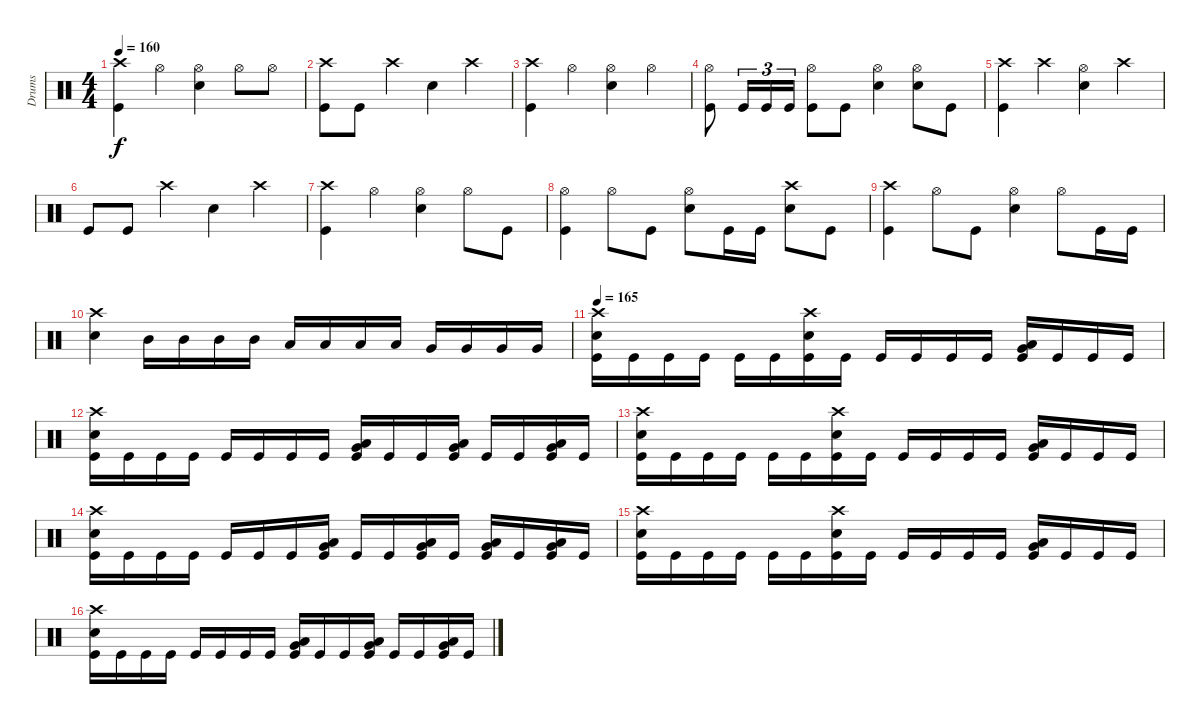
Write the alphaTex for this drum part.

\track ("Drums" "Drums") {instrument percussion}
\staff {score}
\articulation defaults
\ts (4 4)
\tempo 160
\clef neutral
\ks c
("Crash high (hit)" "Kick (hit)").4{dy f} "Hi-Hat (open)".4 ("Hi-Hat (open)" "Electric Snare (hit)").4 "Hi-Hat (open)".8 "Hi-Hat (open)".8 |
("Crash high (hit)" "Kick (hit)").8 "Kick (hit)".8 "Crash high (hit)".4 "Electric Snare (hit)".4 "Crash high (hit)".4 |
("Crash high (hit)" "Kick (hit)").4 "Hi-Hat (open)".4 ("Hi-Hat (open)" "Electric Snare (hit)").4 "Hi-Hat (open)".4 |
("Hi-Hat (open)" "Kick (hit)").8 "Kick (hit)".16{tu (3 2)} "Kick (hit)".16{tu (3 2)} "Kick (hit)".16{tu (3 2)} ("Hi-Hat (open)" "Kick (hit)").8 "Kick (hit)".8 ("Hi-Hat (open)" "Electric Snare (hit)").4 ("Hi-Hat (open)" "Electric Snare (hit)").8 "Kick (hit)".8 |
("Crash high (hit)" "Kick (hit)").4 "Crash high (hit)".4 ("Hi-Hat (open)" "Electric Snare (hit)").4 "Crash high (hit)".4 |
"Kick (hit)".8 "Kick (hit)".8 "Crash high (hit)".4 "Electric Snare (hit)".4 "Crash high (hit)".4 |
("Crash high (hit)" "Kick (hit)").4 "Hi-Hat (open)".4 ("Hi-Hat (open)" "Electric Snare (hit)").4 "Hi-Hat (open)".8 "Kick (hit)".8 |
("Hi-Hat (open)" "Kick (hit)").4 "Hi-Hat (open)".8 "Kick (hit)".8 ("Hi-Hat (open)" "Electric Snare (hit)").8 "Kick (hit)".16 "Kick (hit)".16 ("Crash high (hit)" "Electric Snare (hit)").8 "Kick (hit)".8 |
("Crash high (hit)" "Kick (hit)").4 "Hi-Hat (open)".8 "Kick (hit)".8 ("Hi-Hat (open)" "Electric Snare (hit)").4 "Hi-Hat (open)".8 "Kick (hit)".16 "Kick (hit)".16 |
("Crash high (hit)" "Electric Snare (hit)").4 "Mid Tom (hit)".16 "Mid Tom (hit)".16 "Mid Tom (hit)".16 "Mid Tom (hit)".16 "Low Tom (hit)".16 "Low Tom (hit)".16 "Low Tom (hit)".16 "Low Tom (hit)".16 "Very Low Tom (hit)".16 "Very Low Tom (hit)".16 "Very Low Tom (hit)".16 "Very Low Tom (hit)".16 |
\tempo 165
("Crash high (hit)" "Electric Snare (hit)" "Kick (hit)").16 "Kick (hit)".16 "Kick (hit)".16 "Kick (hit)".16 "Kick (hit)".16 "Kick (hit)".16 ("Crash high (hit)" "Electric Snare (hit)" "Kick (hit)").16 "Kick (hit)".16 "Kick (hit)".16 "Kick (hit)".16 "Kick (hit)".16 "Kick (hit)".16 ("Low Tom (hit)" "Very Low Tom (hit)" "Kick (hit)").16 "Kick (hit)".16 "Kick (hit)".16 "Kick (hit)".16 |
("Crash high (hit)" "Electric Snare (hit)" "Kick (hit)").16 "Kick (hit)".16 "Kick (hit)".16 "Kick (hit)".16 "Kick (hit)".16 "Kick (hit)".16 "Kick (hit)".16 "Kick (hit)".16 ("Low Tom (hit)" "Very Low Tom (hit)" "Kick (hit)").16 "Kick (hit)".16 "Kick (hit)".16 ("Low Tom (hit)" "Very Low Tom (hit)" "Kick (hit)").16 "Kick (hit)".16 "Kick (hit)".16 ("Low Tom (hit)" "Very Low Tom (hit)" "Kick (hit)").16 "Kick (hit)".16 |
("Crash high (hit)" "Electric Snare (hit)" "Kick (hit)").16 "Kick (hit)".16 "Kick (hit)".16 "Kick (hit)".16 "Kick (hit)".16 "Kick (hit)".16 ("Crash high (hit)" "Electric Snare (hit)" "Kick (hit)").16 "Kick (hit)".16 "Kick (hit)".16 "Kick (hit)".16 "Kick (hit)".16 "Kick (hit)".16 ("Low Tom (hit)" "Very Low Tom (hit)" "Kick (hit)").16 "Kick (hit)".16 "Kick (hit)".16 "Kick (hit)".16 |
("Crash high (hit)" "Electric Snare (hit)" "Kick (hit)").16 "Kick (hit)".16 "Kick (hit)".16 "Kick (hit)".16 "Kick (hit)".16 "Kick (hit)".16 "Kick (hit)".16 ("Low Tom (hit)" "Very Low Tom (hit)" "Kick (hit)").16 "Kick (hit)".16 "Kick (hit)".16 ("Low Tom (hit)" "Very Low Tom (hit)" "Kick (hit)").16 "Kick (hit)".16 ("Low Tom (hit)" "Very Low Tom (hit)" "Kick (hit)").16 "Kick (hit)".16 ("Low Tom (hit)" "Very Low Tom (hit)" "Kick (hit)").16 "Kick (hit)".16 |
("Crash high (hit)" "Electric Snare (hit)" "Kick (hit)").16 "Kick (hit)".16 "Kick (hit)".16 "Kick (hit)".16 "Kick (hit)".16 "Kick (hit)".16 ("Crash high (hit)" "Electric Snare (hit)" "Kick (hit)").16 "Kick (hit)".16 "Kick (hit)".16 "Kick (hit)".16 "Kick (hit)".16 "Kick (hit)".16 ("Low Tom (hit)" "Very Low Tom (hit)" "Kick (hit)").16 "Kick (hit)".16 "Kick (hit)".16 "Kick (hit)".16 |
("Crash high (hit)" "Electric Snare (hit)" "Kick (hit)").16 "Kick (hit)".16 "Kick (hit)".16 "Kick (hit)".16 "Kick (hit)".16 "Kick (hit)".16 "Kick (hit)".16 "Kick (hit)".16 ("Low Tom (hit)" "Very Low Tom (hit)" "Kick (hit)").16 "Kick (hit)".16 "Kick (hit)".16 ("Low Tom (hit)" "Very Low Tom (hit)" "Kick (hit)").16 "Kick (hit)".16 "Kick (hit)".16 ("Low Tom (hit)" "Very Low Tom (hit)" "Kick (hit)").16 "Kick (hit)".16
